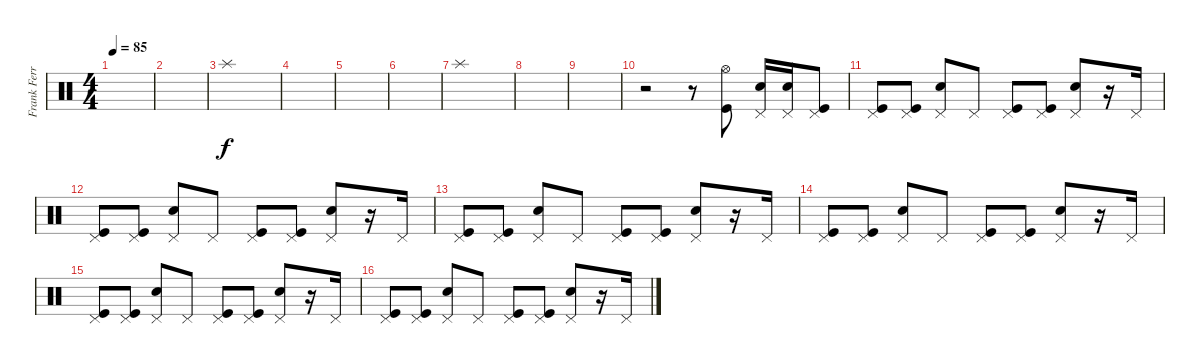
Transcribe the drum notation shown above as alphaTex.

\track ("Frank Ferrer" "Frank Ferr") {instrument percussion}
\staff {score}
\articulation defaults
\ts (4 4)
\tempo 85
\clef neutral
\ks c
|
|
"Splash (hit)".1 |
|
|
|
"Splash (hit)".1 |
|
|
r.2 r.8 ("Kick (hit)" "Hi-Hat (open)").8 ("Snare (hit) 2" "Pedal Hi-Hat (hit)").16 ("Snare (hit) 2" "Pedal Hi-Hat (hit)").16 ("Kick (hit)" "Pedal Hi-Hat (hit)").8 |
("Kick (hit)" "Pedal Hi-Hat (hit)").8 ("Kick (hit)" "Pedal Hi-Hat (hit)").8 ("Snare (hit) 2" "Pedal Hi-Hat (hit)").8 "Pedal Hi-Hat (hit)".8 ("Kick (hit)" "Pedal Hi-Hat (hit)").8 ("Kick (hit)" "Pedal Hi-Hat (hit)").8 ("Snare (hit) 2" "Pedal Hi-Hat (hit)").8 r.16 "Pedal Hi-Hat (hit)".16 |
("Kick (hit)" "Pedal Hi-Hat (hit)").8 ("Kick (hit)" "Pedal Hi-Hat (hit)").8 ("Snare (hit) 2" "Pedal Hi-Hat (hit)").8 "Pedal Hi-Hat (hit)".8 ("Kick (hit)" "Pedal Hi-Hat (hit)").8 ("Kick (hit)" "Pedal Hi-Hat (hit)").8 ("Snare (hit) 2" "Pedal Hi-Hat (hit)").8 r.16 "Pedal Hi-Hat (hit)".16 |
("Kick (hit)" "Pedal Hi-Hat (hit)").8 ("Kick (hit)" "Pedal Hi-Hat (hit)").8 ("Snare (hit) 2" "Pedal Hi-Hat (hit)").8 "Pedal Hi-Hat (hit)".8 ("Kick (hit)" "Pedal Hi-Hat (hit)").8 ("Kick (hit)" "Pedal Hi-Hat (hit)").8 ("Snare (hit) 2" "Pedal Hi-Hat (hit)").8 r.16 "Pedal Hi-Hat (hit)".16 |
("Kick (hit)" "Pedal Hi-Hat (hit)").8 ("Kick (hit)" "Pedal Hi-Hat (hit)").8 ("Snare (hit) 2" "Pedal Hi-Hat (hit)").8 "Pedal Hi-Hat (hit)".8 ("Kick (hit)" "Pedal Hi-Hat (hit)").8 ("Kick (hit)" "Pedal Hi-Hat (hit)").8 ("Snare (hit) 2" "Pedal Hi-Hat (hit)").8 r.16 "Pedal Hi-Hat (hit)".16 |
("Kick (hit)" "Pedal Hi-Hat (hit)").8 ("Kick (hit)" "Pedal Hi-Hat (hit)").8 ("Snare (hit) 2" "Pedal Hi-Hat (hit)").8 "Pedal Hi-Hat (hit)".8 ("Kick (hit)" "Pedal Hi-Hat (hit)").8 ("Kick (hit)" "Pedal Hi-Hat (hit)").8 ("Snare (hit) 2" "Pedal Hi-Hat (hit)").8 r.16 "Pedal Hi-Hat (hit)".16 |
("Kick (hit)" "Pedal Hi-Hat (hit)").8 ("Kick (hit)" "Pedal Hi-Hat (hit)").8 ("Snare (hit) 2" "Pedal Hi-Hat (hit)").8 "Pedal Hi-Hat (hit)".8 ("Kick (hit)" "Pedal Hi-Hat (hit)").8 ("Kick (hit)" "Pedal Hi-Hat (hit)").8 ("Snare (hit) 2" "Pedal Hi-Hat (hit)").8 r.16 "Pedal Hi-Hat (hit)".16
